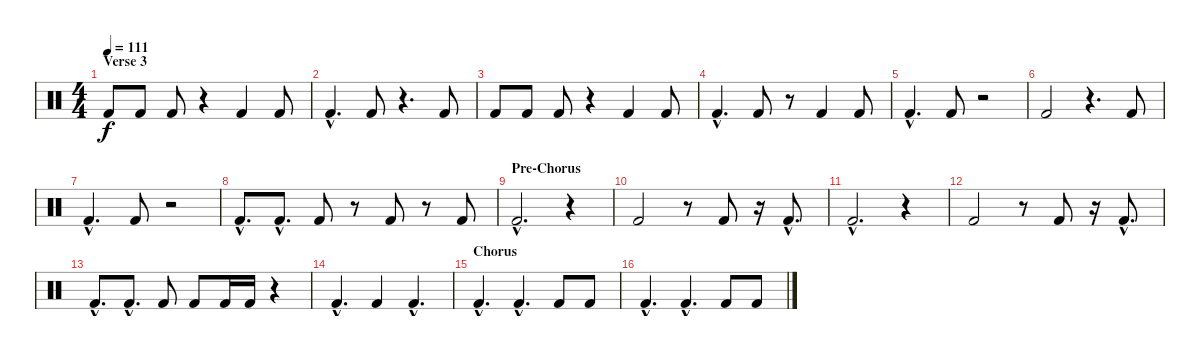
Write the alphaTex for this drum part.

\track "" {instrument percussion}
\staff {score}
\articulation defaults
\ts (4 4)
\section ("" "Verse 3")
\tempo 111
\clef neutral
\ks c "Kick (hit) 2".8{dy f} "Kick (hit) 2".8 "Kick (hit) 2".8
r.4 "Kick (hit) 2".4 "Kick (hit) 2".8 |
"Kick (hit) 2"{hac}.4{d} "Kick (hit) 2".8 r.4{d} "Kick (hit) 2".8 |
"Kick (hit) 2".8 "Kick (hit) 2".8 "Kick (hit) 2".8 r.4 "Kick (hit) 2".4 "Kick (hit) 2".8 |
"Kick (hit) 2"{hac}.4{d} "Kick (hit) 2".8 r.8 "Kick (hit) 2".4 "Kick (hit) 2".8 |
"Kick (hit) 2"{hac}.4{d} "Kick (hit) 2".8 r.2 |
"Kick (hit) 2".2 r.4{d} "Kick (hit) 2".8 |
"Kick (hit) 2"{hac}.4{d} "Kick (hit) 2".8 r.2 |
"Kick (hit) 2"{hac}.8{d} "Kick (hit) 2"{hac}.8{d} "Kick (hit) 2".8 r.8 "Kick (hit) 2".8 r.8 "Kick (hit) 2".8 |
\section ("" "Pre-Chorus")
"Kick (hit) 2"{hac}.2{d} r.4 |
"Kick (hit) 2".2 r.8 "Kick (hit) 2".8 r.16 "Kick (hit) 2"{hac}.8{d} |
"Kick (hit) 2"{hac}.2{d} r.4 |
"Kick (hit) 2".2 r.8 "Kick (hit) 2".8 r.16 "Kick (hit) 2"{hac}.8{d} |
"Kick (hit) 2"{hac}.8{d} "Kick (hit) 2"{hac}.8{d} "Kick (hit) 2".8 "Kick (hit) 2".8 "Kick (hit) 2".16 "Kick (hit) 2".16 r.4 |
"Kick (hit) 2"{hac}.4{d} "Kick (hit) 2".4 "Kick (hit) 2"{hac}.4{d} |
\section ("" "Chorus")
"Kick (hit) 2"{hac}.4{d} "Kick (hit) 2"{hac}.4{d} "Kick (hit) 2".8 "Kick (hit) 2".8 |
"Kick (hit) 2"{hac}.4{d} "Kick (hit) 2"{hac}.4{d} "Kick (hit) 2".8 "Kick (hit) 2".8
